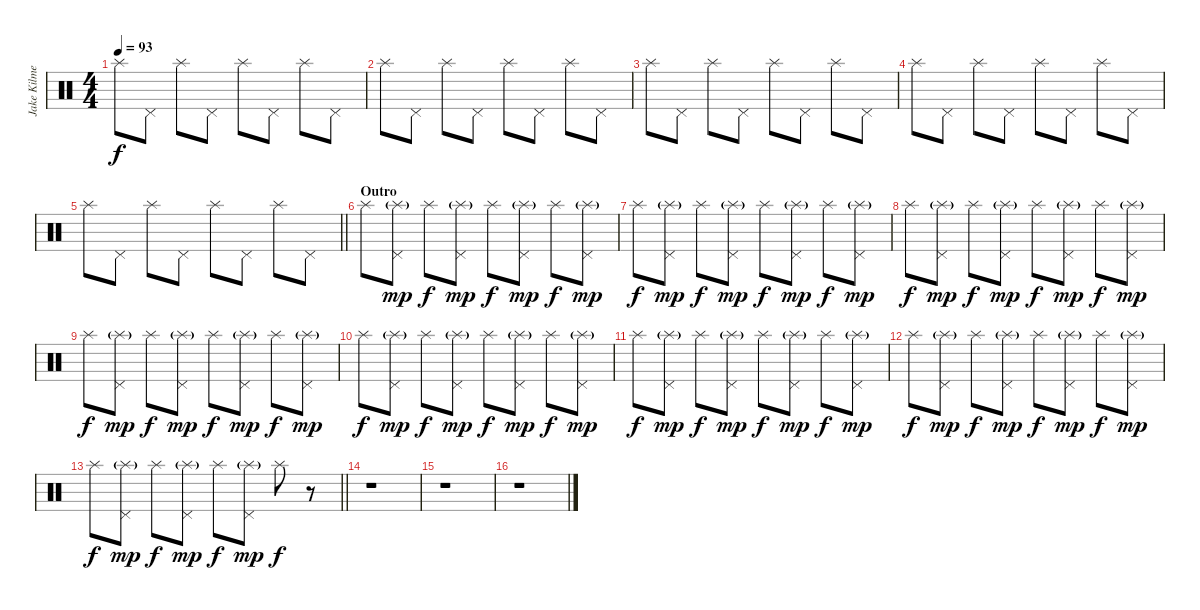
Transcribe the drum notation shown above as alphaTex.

\track ("Jake Kilmer (Drums)" "Jake Kilme") {instrument percussion}
\staff {score}
\articulation defaults
\ts (4 4)
\tempo 93
\clef neutral
\ks c "Splash (hit)".8{dy f} "Pedal Hi-Hat (hit)".8 "Splash (hit)".8 "Pedal Hi-Hat (hit)".8 "Splash (hit)".8 "Pedal Hi-Hat (hit)".8 "Splash (hit)".8 "Pedal Hi-Hat (hit)".8
|
"Splash (hit)".8 "Pedal Hi-Hat (hit)".8 "Splash (hit)".8 "Pedal Hi-Hat (hit)".8 "Splash (hit)".8 "Pedal Hi-Hat (hit)".8 "Splash (hit)".8 "Pedal Hi-Hat (hit)".8 |
"Splash (hit)".8 "Pedal Hi-Hat (hit)".8 "Splash (hit)".8 "Pedal Hi-Hat (hit)".8 "Splash (hit)".8 "Pedal Hi-Hat (hit)".8 "Splash (hit)".8 "Pedal Hi-Hat (hit)".8 |
"Splash (hit)".8 "Pedal Hi-Hat (hit)".8 "Splash (hit)".8 "Pedal Hi-Hat (hit)".8 "Splash (hit)".8 "Pedal Hi-Hat (hit)".8 "Splash (hit)".8 "Pedal Hi-Hat (hit)".8 |
\barLineRight lightlight "Splash (hit)".8 "Pedal Hi-Hat (hit)".8 "Splash (hit)".8 "Pedal Hi-Hat (hit)".8 "Splash (hit)".8 "Pedal Hi-Hat (hit)".8 "Splash (hit)".8 "Pedal Hi-Hat (hit)".8
|
\section ("" "Outro")
"Splash (hit)".8 ("Splash (hit)"{g} "Pedal Hi-Hat (hit)").8{dy mp} "Splash (hit)".8{dy f} ("Splash (hit)"{g} "Pedal Hi-Hat (hit)").8{dy mp} "Splash (hit)".8{dy f} ("Splash (hit)"{g} "Pedal Hi-Hat (hit)").8{dy mp} "Splash (hit)".8{dy f} ("Splash (hit)"{g} "Pedal Hi-Hat (hit)").8{dy mp} |
"Splash (hit)".8{dy f} ("Splash (hit)"{g} "Pedal Hi-Hat (hit)").8{dy mp} "Splash (hit)".8{dy f} ("Splash (hit)"{g} "Pedal Hi-Hat (hit)").8{dy mp} "Splash (hit)".8{dy f} ("Splash (hit)"{g} "Pedal Hi-Hat (hit)").8{dy mp} "Splash (hit)".8{dy f} ("Splash (hit)"{g} "Pedal Hi-Hat (hit)").8{dy mp} |
"Splash (hit)".8{dy f} ("Splash (hit)"{g} "Pedal Hi-Hat (hit)").8{dy mp} "Splash (hit)".8{dy f} ("Splash (hit)"{g} "Pedal Hi-Hat (hit)").8{dy mp} "Splash (hit)".8{dy f} ("Splash (hit)"{g} "Pedal Hi-Hat (hit)").8{dy mp} "Splash (hit)".8{dy f} ("Splash (hit)"{g} "Pedal Hi-Hat (hit)").8{dy mp} |
"Splash (hit)".8{dy f} ("Splash (hit)"{g} "Pedal Hi-Hat (hit)").8{dy mp} "Splash (hit)".8{dy f} ("Splash (hit)"{g} "Pedal Hi-Hat (hit)").8{dy mp} "Splash (hit)".8{dy f} ("Splash (hit)"{g} "Pedal Hi-Hat (hit)").8{dy mp} "Splash (hit)".8{dy f} ("Splash (hit)"{g} "Pedal Hi-Hat (hit)").8{dy mp} |
"Splash (hit)".8{dy f} ("Splash (hit)"{g} "Pedal Hi-Hat (hit)").8{dy mp} "Splash (hit)".8{dy f} ("Splash (hit)"{g} "Pedal Hi-Hat (hit)").8{dy mp} "Splash (hit)".8{dy f} ("Splash (hit)"{g} "Pedal Hi-Hat (hit)").8{dy mp} "Splash (hit)".8{dy f} ("Splash (hit)"{g} "Pedal Hi-Hat (hit)").8{dy mp} |
"Splash (hit)".8{dy f} ("Splash (hit)"{g} "Pedal Hi-Hat (hit)").8{dy mp} "Splash (hit)".8{dy f} ("Splash (hit)"{g} "Pedal Hi-Hat (hit)").8{dy mp} "Splash (hit)".8{dy f} ("Splash (hit)"{g} "Pedal Hi-Hat (hit)").8{dy mp} "Splash (hit)".8{dy f} ("Splash (hit)"{g} "Pedal Hi-Hat (hit)").8{dy mp} |
"Splash (hit)".8{dy f} ("Splash (hit)"{g} "Pedal Hi-Hat (hit)").8{dy mp} "Splash (hit)".8{dy f} ("Splash (hit)"{g} "Pedal Hi-Hat (hit)").8{dy mp} "Splash (hit)".8{dy f} ("Splash (hit)"{g} "Pedal Hi-Hat (hit)").8{dy mp} "Splash (hit)".8{dy f} ("Splash (hit)"{g} "Pedal Hi-Hat (hit)").8{dy mp} |
\barLineRight lightlight "Splash (hit)".8{dy f}
("Splash (hit)"{g} "Pedal Hi-Hat (hit)").8{dy mp} "Splash (hit)".8{dy f} ("Splash (hit)"{g} "Pedal Hi-Hat (hit)").8{dy mp} "Splash (hit)".8{dy f} ("Splash (hit)"{g} "Pedal Hi-Hat (hit)").8{dy mp} "Splash (hit)".8{dy f} r.8 |
r.1 |
r.1 |
r.1
